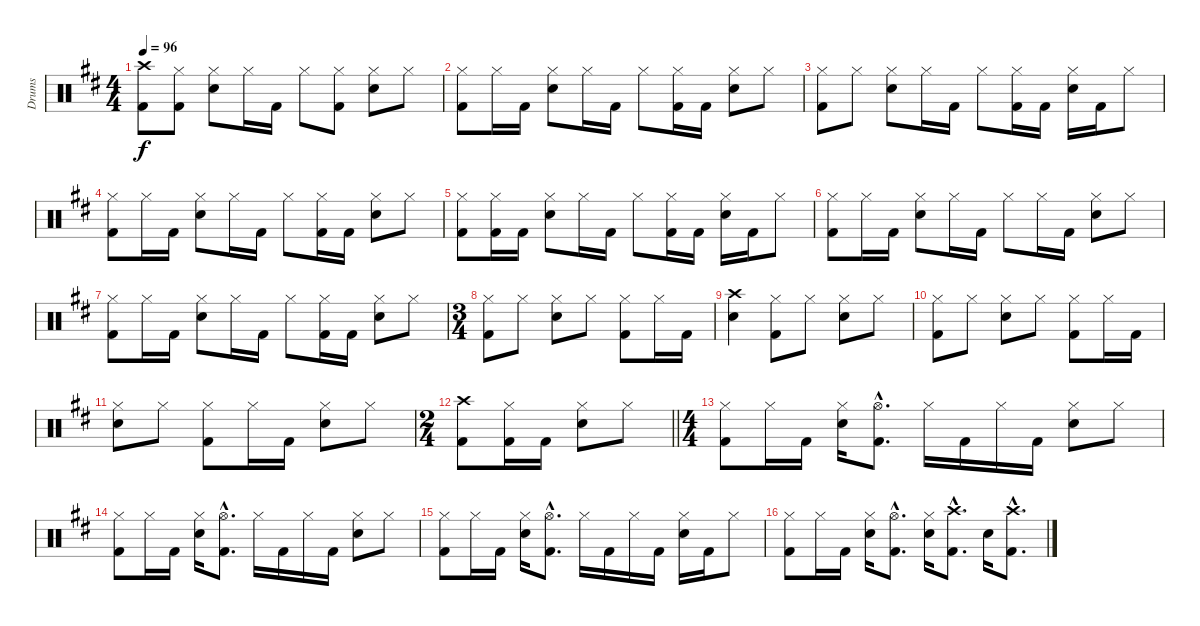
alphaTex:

\track ("Drums" "Drums") {instrument percussion}
\staff {score}
\articulation defaults
\ts (4 4)
\tempo 96
\clef neutral
\ks d
("Crash high (hit)" "Kick (hit) 2").8{dy f} ("Hi-Hat (closed)" "Kick (hit) 2").8 ("Hi-Hat (closed)" "Electric Snare (hit)").8 "Hi-Hat (closed)".16 "Kick (hit) 2".16 "Hi-Hat (closed)".8 ("Hi-Hat (closed)" "Kick (hit) 2").8 ("Hi-Hat (closed)" "Electric Snare (hit)").8 "Hi-Hat (closed)".8 |
("Hi-Hat (closed)" "Kick (hit) 2").8 "Hi-Hat (closed)".16 "Kick (hit) 2".16 ("Hi-Hat (closed)" "Electric Snare (hit)").8 "Hi-Hat (closed)".16 "Kick (hit) 2".16 "Hi-Hat (closed)".8 ("Hi-Hat (closed)" "Kick (hit) 2").16 "Kick (hit) 2".16 ("Hi-Hat (closed)" "Electric Snare (hit)").8 "Hi-Hat (closed)".8 |
("Hi-Hat (closed)" "Kick (hit) 2").8 "Hi-Hat (closed)".8 ("Hi-Hat (closed)" "Electric Snare (hit)").8 "Hi-Hat (closed)".16 "Kick (hit) 2".16 "Hi-Hat (closed)".8 ("Hi-Hat (closed)" "Kick (hit) 2").16 "Kick (hit) 2".16 ("Hi-Hat (closed)" "Electric Snare (hit)").16 "Kick (hit) 2".16 "Hi-Hat (closed)".8 |
("Hi-Hat (closed)" "Kick (hit) 2").8 "Hi-Hat (closed)".16 "Kick (hit) 2".16 ("Hi-Hat (closed)" "Electric Snare (hit)").8 "Hi-Hat (closed)".16 "Kick (hit) 2".16 "Hi-Hat (closed)".8 ("Hi-Hat (closed)" "Kick (hit) 2").16 "Kick (hit) 2".16 ("Hi-Hat (closed)" "Electric Snare (hit)").8 "Hi-Hat (closed)".8 |
("Hi-Hat (closed)" "Kick (hit) 2").8 ("Hi-Hat (closed)" "Kick (hit) 2").16 "Kick (hit) 2".16 ("Hi-Hat (closed)" "Electric Snare (hit)").8 "Hi-Hat (closed)".16 "Kick (hit) 2".16 "Hi-Hat (closed)".8 ("Hi-Hat (closed)" "Kick (hit) 2").16 "Kick (hit) 2".16 ("Hi-Hat (closed)" "Electric Snare (hit)").16 "Kick (hit) 2".16 "Hi-Hat (closed)".8 |
("Hi-Hat (closed)" "Kick (hit) 2").8 "Hi-Hat (closed)".16 "Kick (hit) 2".16 ("Hi-Hat (closed)" "Electric Snare (hit)").8 "Hi-Hat (closed)".16 "Kick (hit) 2".16 "Hi-Hat (closed)".8 "Hi-Hat (closed)".16 "Kick (hit) 2".16 ("Hi-Hat (closed)" "Electric Snare (hit)").8 "Hi-Hat (closed)".8 |
("Hi-Hat (closed)" "Kick (hit) 2").8 "Hi-Hat (closed)".16 "Kick (hit) 2".16 ("Hi-Hat (closed)" "Electric Snare (hit)").8 "Hi-Hat (closed)".16 "Kick (hit) 2".16 "Hi-Hat (closed)".8 ("Hi-Hat (closed)" "Kick (hit) 2").16 "Kick (hit) 2".16 ("Hi-Hat (closed)" "Electric Snare (hit)").8 "Hi-Hat (closed)".8 |
\ts (3 4)
("Hi-Hat (closed)" "Kick (hit) 2").8 "Hi-Hat (closed)".8 ("Hi-Hat (closed)" "Electric Snare (hit)").8 "Hi-Hat (closed)".8 ("Hi-Hat (closed)" "Kick (hit) 2").8 "Hi-Hat (closed)".16 "Kick (hit) 2".16 |
("Crash high (hit)" "Electric Snare (hit)").4 ("Hi-Hat (closed)" "Kick (hit) 2").8 "Hi-Hat (closed)".8 ("Hi-Hat (closed)" "Electric Snare (hit)").8 "Hi-Hat (closed)".8 |
("Hi-Hat (closed)" "Kick (hit) 2").8 "Hi-Hat (closed)".8 ("Hi-Hat (closed)" "Electric Snare (hit)").8 "Hi-Hat (closed)".8 ("Hi-Hat (closed)" "Kick (hit) 2").8 "Hi-Hat (closed)".16 "Kick (hit) 2".16 |
("Hi-Hat (closed)" "Electric Snare (hit)").8 "Hi-Hat (closed)".8 ("Hi-Hat (closed)" "Kick (hit) 2").8 "Hi-Hat (closed)".16 "Kick (hit) 2".16 ("Hi-Hat (closed)" "Electric Snare (hit)").8 "Hi-Hat (closed)".8 |
\ts (2 4)
\barLineRight lightlight
("Crash high (hit)" "Kick (hit) 2").8 ("Hi-Hat (closed)" "Kick (hit) 2").16 "Kick (hit) 2".16 ("Hi-Hat (closed)" "Electric Snare (hit)").8 "Hi-Hat (closed)".8 |
\ts (4 4)
\section ("" "")
("Hi-Hat (closed)" "Kick (hit) 2").8 "Hi-Hat (closed)".16 "Kick (hit) 2".16 ("Hi-Hat (closed)" "Electric Snare (hit)").16 ("Hi-Hat (open)"{hac} "Kick (hit) 2"{hac}).8{d} "Hi-Hat (closed)".16 "Kick (hit) 2".16 "Hi-Hat (closed)".16 "Kick (hit) 2".16 ("Hi-Hat (closed)" "Electric Snare (hit)").8 "Hi-Hat (closed)".8 |
("Hi-Hat (closed)" "Kick (hit) 2").8 "Hi-Hat (closed)".16 "Kick (hit) 2".16 ("Hi-Hat (closed)" "Electric Snare (hit)").16 ("Hi-Hat (open)"{hac} "Kick (hit) 2"{hac}).8{d} "Hi-Hat (closed)".16 "Kick (hit) 2".16 "Hi-Hat (closed)".16 "Kick (hit) 2".16 ("Hi-Hat (closed)" "Electric Snare (hit)").8 "Hi-Hat (closed)".8 |
("Hi-Hat (closed)" "Kick (hit) 2").8 "Hi-Hat (closed)".16 "Kick (hit) 2".16 ("Hi-Hat (closed)" "Electric Snare (hit)").16 ("Hi-Hat (open)"{hac} "Kick (hit) 2"{hac}).8{d} "Hi-Hat (closed)".16 "Kick (hit) 2".16 "Hi-Hat (closed)".16 "Kick (hit) 2".16 ("Hi-Hat (closed)" "Electric Snare (hit)").16 "Kick (hit) 2".16 "Hi-Hat (closed)".8 |
("Hi-Hat (closed)" "Kick (hit) 2").8 "Hi-Hat (closed)".16 "Kick (hit) 2".16 ("Hi-Hat (closed)" "Electric Snare (hit)").16 ("Hi-Hat (open)"{hac} "Kick (hit) 2"{hac}).8{d} ("Hi-Hat (closed)" "Electric Snare (hit)").16 ("Crash high (hit)"{hac} "Kick (hit) 2"{hac}).8{d} "Electric Snare (hit)".16 ("Crash high (hit)"{hac} "Kick (hit) 2"{hac}).8{d}
